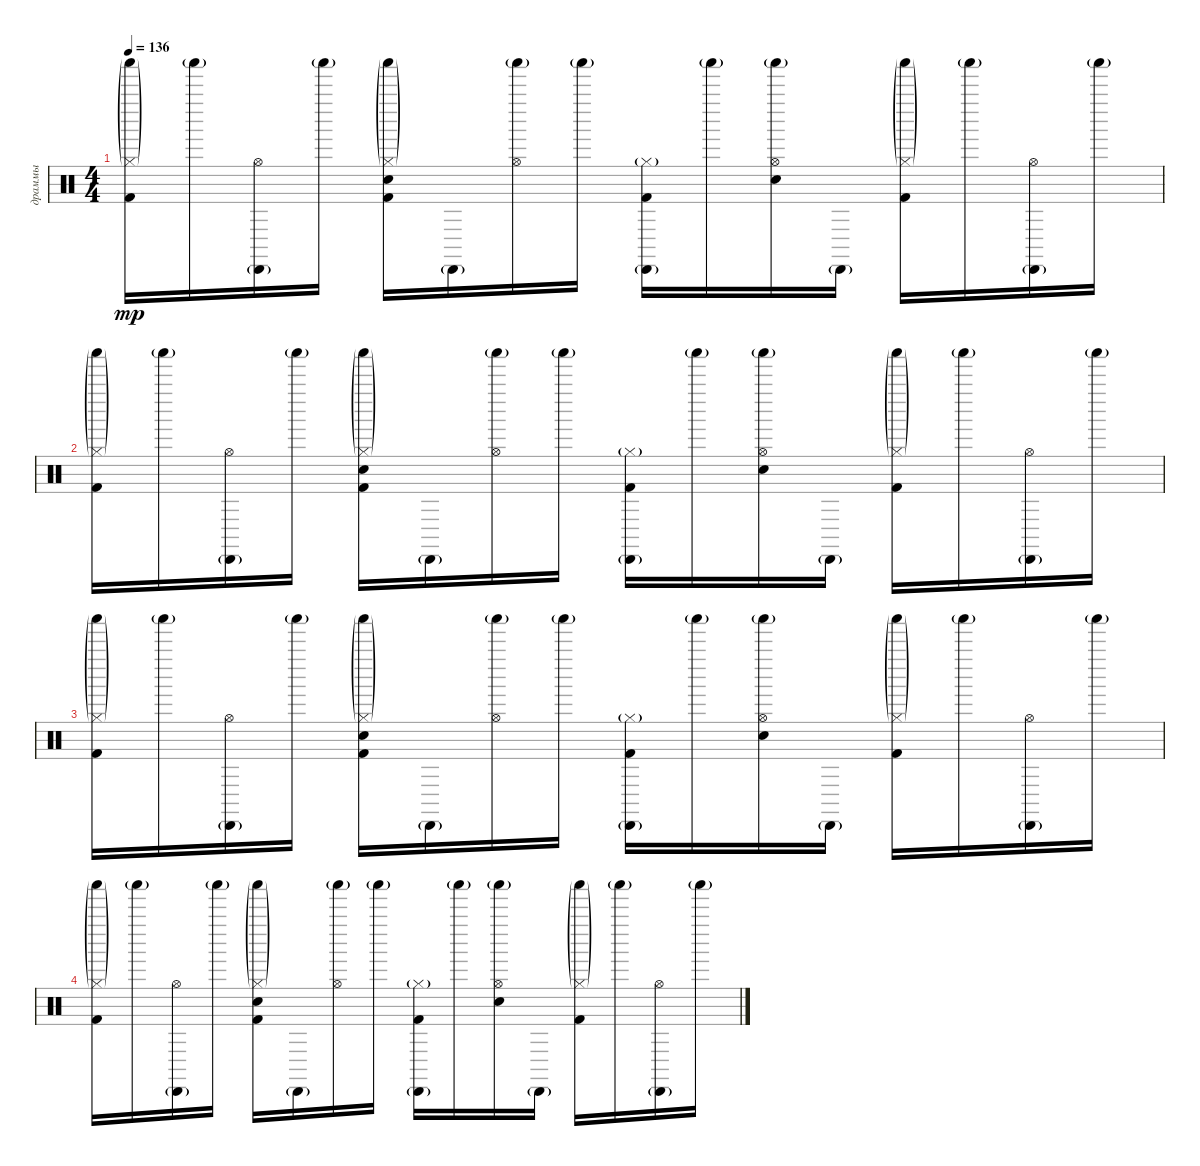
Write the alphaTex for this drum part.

\track ("драммы" "драммы") {instrument percussion}
\staff {score}
\articulation defaults
\ts (4 4)
\tempo 136
\clef neutral
\ks c
("Shaker (hit)"{g} "Kick (hit) 2" "Hi-Hat (closed)"{g}).16{dy mp} "Shaker (hit)"{g}.16 ("Cabasa (hit)"{g} "Hi-Hat (open)").16 "Shaker (hit)"{g}.16 ("Shaker (hit)"{g} "Snare (hit) 2" "Kick (hit) 2" "Hi-Hat (closed)"{g}).16 "Cabasa (hit)"{g}.16 ("Shaker (hit)"{g} "Hi-Hat (open)").16 "Shaker (hit)"{g}.16 ("Cabasa (hit)"{g} "Kick (hit) 2" "Hi-Hat (closed)"{g}).16 "Shaker (hit)"{g}.16 ("Shaker (hit)"{g} "Snare (hit) 2" "Hi-Hat (open)").16 "Cabasa (hit)"{g}.16 ("Shaker (hit)"{g} "Kick (hit) 2" "Hi-Hat (closed)"{g}).16 "Shaker (hit)"{g}.16 ("Cabasa (hit)"{g} "Hi-Hat (open)").16 "Shaker (hit)"{g}.16 |
("Shaker (hit)"{g} "Kick (hit) 2" "Hi-Hat (closed)"{g}).16 "Shaker (hit)"{g}.16 ("Cabasa (hit)"{g} "Hi-Hat (open)").16 "Shaker (hit)"{g}.16 ("Shaker (hit)"{g} "Snare (hit) 2" "Kick (hit) 2" "Hi-Hat (closed)"{g}).16 "Cabasa (hit)"{g}.16 ("Shaker (hit)"{g} "Hi-Hat (open)").16 "Shaker (hit)"{g}.16 ("Cabasa (hit)"{g} "Kick (hit) 2" "Hi-Hat (closed)"{g}).16 "Shaker (hit)"{g}.16 ("Shaker (hit)"{g} "Snare (hit) 2" "Hi-Hat (open)").16 "Cabasa (hit)"{g}.16 ("Shaker (hit)"{g} "Kick (hit) 2" "Hi-Hat (closed)"{g}).16 "Shaker (hit)"{g}.16 ("Cabasa (hit)"{g} "Hi-Hat (open)").16 "Shaker (hit)"{g}.16 |
("Shaker (hit)"{g} "Kick (hit) 2" "Hi-Hat (closed)"{g}).16 "Shaker (hit)"{g}.16 ("Cabasa (hit)"{g} "Hi-Hat (open)").16 "Shaker (hit)"{g}.16 ("Shaker (hit)"{g} "Snare (hit) 2" "Kick (hit) 2" "Hi-Hat (closed)"{g}).16 "Cabasa (hit)"{g}.16 ("Shaker (hit)"{g} "Hi-Hat (open)").16 "Shaker (hit)"{g}.16 ("Cabasa (hit)"{g} "Kick (hit) 2" "Hi-Hat (closed)"{g}).16 "Shaker (hit)"{g}.16 ("Shaker (hit)"{g} "Snare (hit) 2" "Hi-Hat (open)").16 "Cabasa (hit)"{g}.16 ("Shaker (hit)"{g} "Kick (hit) 2" "Hi-Hat (closed)"{g}).16 "Shaker (hit)"{g}.16 ("Cabasa (hit)"{g} "Hi-Hat (open)").16 "Shaker (hit)"{g}.16 |
("Shaker (hit)"{g} "Kick (hit) 2" "Hi-Hat (closed)"{g}).16 "Shaker (hit)"{g}.16 ("Cabasa (hit)"{g} "Hi-Hat (open)").16 "Shaker (hit)"{g}.16 ("Shaker (hit)"{g} "Snare (hit) 2" "Kick (hit) 2" "Hi-Hat (closed)"{g}).16 "Cabasa (hit)"{g}.16 ("Shaker (hit)"{g} "Hi-Hat (open)").16 "Shaker (hit)"{g}.16 ("Cabasa (hit)"{g} "Kick (hit) 2" "Hi-Hat (closed)"{g}).16 "Shaker (hit)"{g}.16 ("Shaker (hit)"{g} "Snare (hit) 2" "Hi-Hat (open)").16 "Cabasa (hit)"{g}.16 ("Shaker (hit)"{g} "Kick (hit) 2" "Hi-Hat (closed)"{g}).16 "Shaker (hit)"{g}.16 ("Cabasa (hit)"{g} "Hi-Hat (open)").16 "Shaker (hit)"{g}.16
